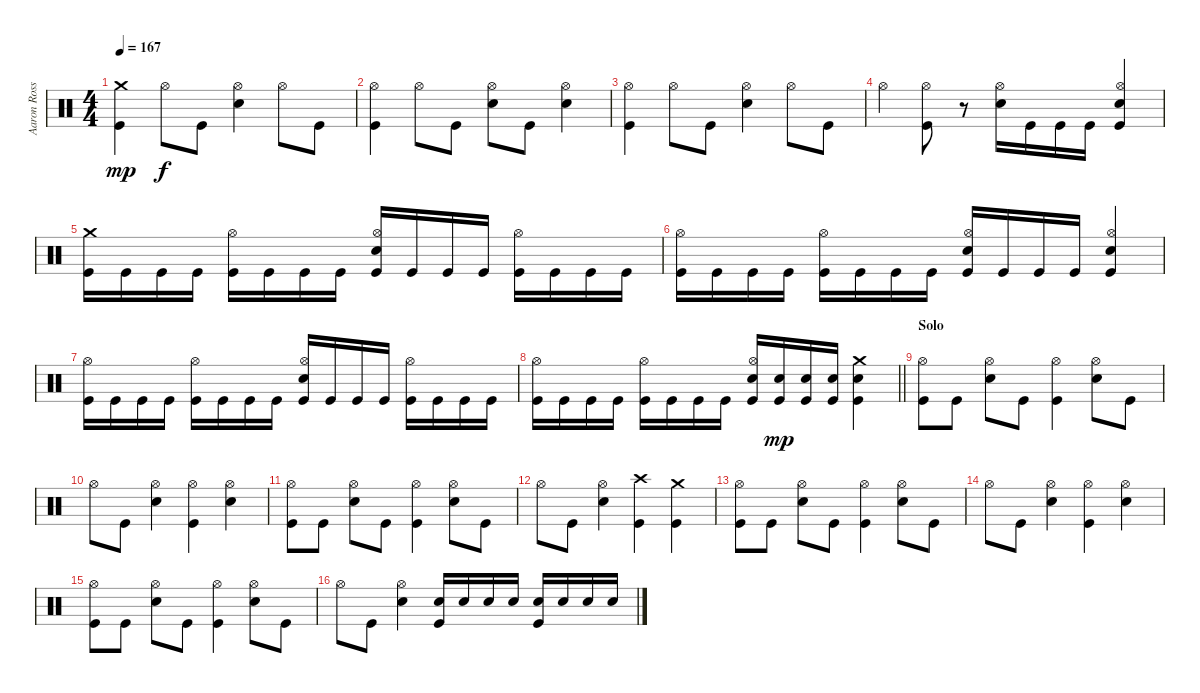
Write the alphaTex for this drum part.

\track ("Aaron Rossi (Drums)" "Aaron Ross") {instrument percussion}
\staff {score}
\articulation defaults
\ts (4 4)
\tempo 167
\clef neutral
\ks c
("Crash medium (hit)" "Kick (hit)").4{dy mp} "Hi-Hat (open)".8{dy f} "Kick (hit)".8 ("Snare (hit) 2" "Hi-Hat (open)").4 "Hi-Hat (open)".8 "Kick (hit)".8 |
("Hi-Hat (open)" "Kick (hit)").4 "Hi-Hat (open)".8 "Kick (hit)".8 ("Snare (hit) 2" "Hi-Hat (open)").8 "Kick (hit)".8 ("Snare (hit) 2" "Hi-Hat (open)").4 |
("Hi-Hat (open)" "Kick (hit)").4 "Hi-Hat (open)".8 "Kick (hit)".8 ("Snare (hit) 2" "Hi-Hat (open)").4 "Hi-Hat (open)".8 "Kick (hit)".8 |
"Hi-Hat (open)".4 ("Hi-Hat (open)" "Kick (hit)").8 r.8 ("Snare (hit) 2" "Hi-Hat (open)").16 "Kick (hit)".16 "Kick (hit)".16 "Kick (hit)".16 ("Snare (hit) 2" "Hi-Hat (open)" "Kick (hit)").4 |
("Crash medium (hit)" "Kick (hit)").16 "Kick (hit)".16 "Kick (hit)".16 "Kick (hit)".16 ("Hi-Hat (open)" "Kick (hit)").16 "Kick (hit)".16 "Kick (hit)".16 "Kick (hit)".16 ("Snare (hit) 2" "Hi-Hat (open)" "Kick (hit)").16 "Kick (hit)".16 "Kick (hit)".16 "Kick (hit)".16 ("Hi-Hat (open)" "Kick (hit)").16 "Kick (hit)".16 "Kick (hit)".16 "Kick (hit)".16 |
("Hi-Hat (open)" "Kick (hit)").16 "Kick (hit)".16 "Kick (hit)".16 "Kick (hit)".16 ("Hi-Hat (open)" "Kick (hit)").16 "Kick (hit)".16 "Kick (hit)".16 "Kick (hit)".16 ("Snare (hit) 2" "Hi-Hat (open)" "Kick (hit)").16 "Kick (hit)".16 "Kick (hit)".16 "Kick (hit)".16 ("Snare (hit) 2" "Hi-Hat (open)" "Kick (hit)").4 |
("Hi-Hat (open)" "Kick (hit)").16 "Kick (hit)".16 "Kick (hit)".16 "Kick (hit)".16 ("Hi-Hat (open)" "Kick (hit)").16 "Kick (hit)".16 "Kick (hit)".16 "Kick (hit)".16 ("Snare (hit) 2" "Hi-Hat (open)" "Kick (hit)").16 "Kick (hit)".16 "Kick (hit)".16 "Kick (hit)".16 ("Hi-Hat (open)" "Kick (hit)").16 "Kick (hit)".16 "Kick (hit)".16 "Kick (hit)".16 |
\barLineRight lightlight
("Hi-Hat (open)" "Kick (hit)").16 "Kick (hit)".16 "Kick (hit)".16 "Kick (hit)".16 ("Hi-Hat (open)" "Kick (hit)").16 "Kick (hit)".16 "Kick (hit)".16 "Kick (hit)".16 ("Snare (hit) 2" "Hi-Hat (open)" "Kick (hit)").16 ("Snare (hit) 2" "Kick (hit)").16{dy mp} ("Snare (hit) 2" "Kick (hit)").16 ("Snare (hit) 2" "Kick (hit)").16 ("Crash medium (hit)" "Snare (hit) 2" "Kick (hit)").4 |
\section ("" "Solo")
("Hi-Hat (open)" "Kick (hit)").8 "Kick (hit)".8 ("Snare (hit) 2" "Hi-Hat (open)").8 "Kick (hit)".8 ("Hi-Hat (open)" "Kick (hit)").4 ("Snare (hit) 2" "Hi-Hat (open)").8 "Kick (hit)".8 |
"Hi-Hat (open)".8 "Kick (hit)".8 ("Snare (hit) 2" "Hi-Hat (open)").4 ("Hi-Hat (open)" "Kick (hit)").4 ("Snare (hit) 2" "Hi-Hat (open)").4 |
("Hi-Hat (open)" "Kick (hit)").8 "Kick (hit)".8 ("Snare (hit) 2" "Hi-Hat (open)").8 "Kick (hit)".8 ("Hi-Hat (open)" "Kick (hit)").4 ("Snare (hit) 2" "Hi-Hat (open)").8 "Kick (hit)".8 |
"Hi-Hat (open)".8 "Kick (hit)".8 ("Snare (hit) 2" "Hi-Hat (open)").4 ("Crash high (hit)" "Kick (hit)").4 ("Crash medium (hit)" "Kick (hit)").4 |
("Hi-Hat (open)" "Kick (hit)").8 "Kick (hit)".8 ("Snare (hit) 2" "Hi-Hat (open)").8 "Kick (hit)".8 ("Hi-Hat (open)" "Kick (hit)").4 ("Snare (hit) 2" "Hi-Hat (open)").8 "Kick (hit)".8 |
"Hi-Hat (open)".8 "Kick (hit)".8 ("Snare (hit) 2" "Hi-Hat (open)").4 ("Hi-Hat (open)" "Kick (hit)").4 ("Snare (hit) 2" "Hi-Hat (open)").4 |
("Hi-Hat (open)" "Kick (hit)").8 "Kick (hit)".8 ("Snare (hit) 2" "Hi-Hat (open)").8 "Kick (hit)".8 ("Hi-Hat (open)" "Kick (hit)").4 ("Snare (hit) 2" "Hi-Hat (open)").8 "Kick (hit)".8 |
"Hi-Hat (open)".8 "Kick (hit)".8 ("Snare (hit) 2" "Hi-Hat (open)").4 ("Snare (hit) 2" "Kick (hit)").16 "Snare (hit) 2".16 "Snare (hit) 2".16 "Snare (hit) 2".16 ("Snare (hit) 2" "Kick (hit)").16 "Snare (hit) 2".16 "Snare (hit) 2".16 "Snare (hit) 2".16
